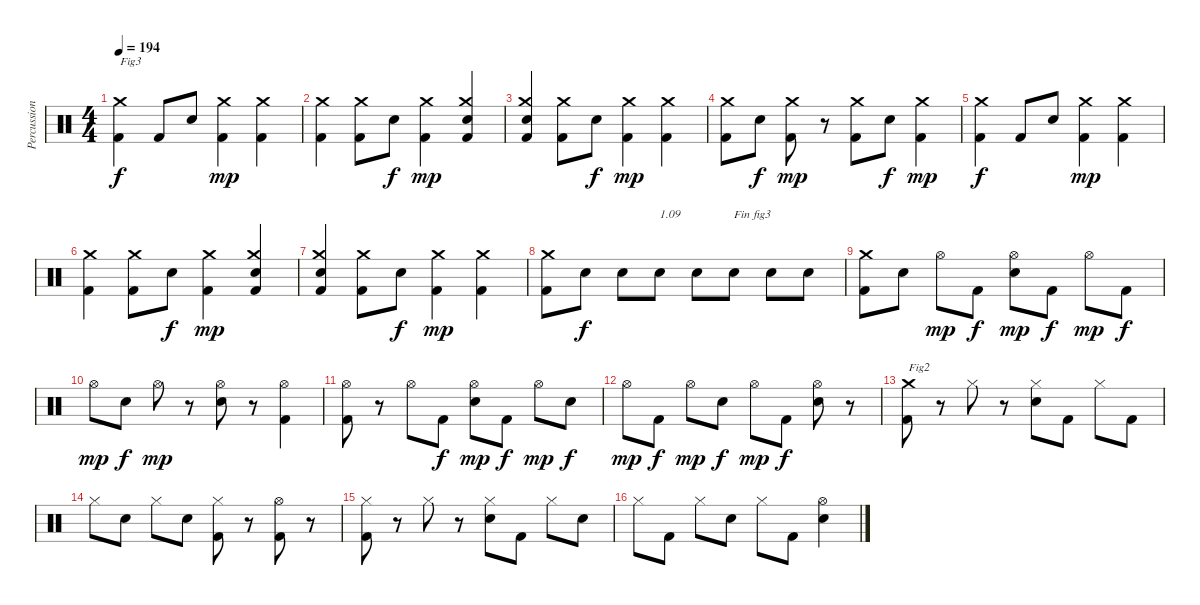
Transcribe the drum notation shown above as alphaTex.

\track ("Percussions" "Percussion") {instrument percussion}
\staff {score}
\articulation defaults
\ts (4 4)
\tempo 194
\clef neutral
\ks c
("Kick (hit) 2" "Crash medium (hit)").4{txt "Fig3" dy f} "Kick (hit) 2".8 "Electric Snare (hit)".8 ("Kick (hit) 2" "Crash medium (hit)").4{dy mp} ("Kick (hit) 2" "Crash medium (hit)").4 |
("Kick (hit) 2" "Crash medium (hit)").4 ("Kick (hit) 2" "Crash medium (hit)").8 "Electric Snare (hit)".8{dy f} ("Kick (hit) 2" "Crash medium (hit)").4{dy mp} ("Kick (hit) 2" "Electric Snare (hit)" "Crash medium (hit)").4 |
("Kick (hit) 2" "Electric Snare (hit)" "Crash medium (hit)").4 ("Kick (hit) 2" "Crash medium (hit)").8 "Electric Snare (hit)".8{dy f} ("Kick (hit) 2" "Crash medium (hit)").4{dy mp} ("Kick (hit) 2" "Crash medium (hit)").4 |
("Kick (hit) 2" "Crash medium (hit)").8 "Electric Snare (hit)".8{dy f} ("Kick (hit) 2" "Crash medium (hit)").8{dy mp} r.8 ("Kick (hit) 2" "Crash medium (hit)").8 "Electric Snare (hit)".8{dy f} ("Kick (hit) 2" "Crash medium (hit)").4{dy mp} |
("Kick (hit) 2" "Crash medium (hit)").4{dy f} "Kick (hit) 2".8 "Electric Snare (hit)".8 ("Kick (hit) 2" "Crash medium (hit)").4{dy mp} ("Kick (hit) 2" "Crash medium (hit)").4 |
("Kick (hit) 2" "Crash medium (hit)").4 ("Kick (hit) 2" "Crash medium (hit)").8 "Electric Snare (hit)".8{dy f} ("Kick (hit) 2" "Crash medium (hit)").4{dy mp} ("Kick (hit) 2" "Electric Snare (hit)" "Crash medium (hit)").4 |
("Kick (hit) 2" "Electric Snare (hit)" "Crash medium (hit)").4 ("Kick (hit) 2" "Crash medium (hit)").8 "Electric Snare (hit)".8{dy f} ("Kick (hit) 2" "Crash medium (hit)").4{dy mp} ("Kick (hit) 2" "Crash medium (hit)").4 |
("Kick (hit) 2" "Crash medium (hit)").8 "Electric Snare (hit)".8{dy f} "Electric Snare (hit)".8 "Electric Snare (hit)".8{txt "1.09"} "Electric Snare (hit)".8 "Electric Snare (hit)".8{txt "Fin fig3"} "Electric Snare (hit)".8 "Electric Snare (hit)".8 |
("Kick (hit) 2" "Crash medium (hit)").8 "Electric Snare (hit)".8 "Hi-Hat (open)".8{dy mp} "Kick (hit) 2".8{dy f} ("Electric Snare (hit)" "Hi-Hat (open)").8{dy mp} "Kick (hit) 2".8{dy f} "Hi-Hat (open)".8{dy mp} "Kick (hit) 2".8{dy f} |
"Hi-Hat (open)".8{dy mp} "Electric Snare (hit)".8{dy f} "Hi-Hat (open)".8{dy mp} r.8 ("Electric Snare (hit)" "Hi-Hat (open)").8 r.8 ("Kick (hit) 2" "Hi-Hat (open)").4 |
("Kick (hit) 2" "Hi-Hat (open)").8 r.8 "Hi-Hat (open)".8 "Kick (hit) 2".8{dy f} ("Electric Snare (hit)" "Hi-Hat (open)").8{dy mp} "Kick (hit) 2".8{dy f} "Hi-Hat (open)".8{dy mp} "Electric Snare (hit)".8{dy f} |
"Hi-Hat (open)".8{dy mp} "Kick (hit) 2".8{dy f} "Hi-Hat (open)".8{dy mp} "Electric Snare (hit)".8{dy f} "Hi-Hat (open)".8{dy mp} "Kick (hit) 2".8{dy f} ("Electric Snare (hit)" "Hi-Hat (open)").8 r.8 |
("Kick (hit) 2" "Crash medium (hit)").8{txt "Fig2"} r.8 "Hi-Hat (closed)".8 r.8 ("Electric Snare (hit)" "Hi-Hat (closed)").8 "Kick (hit) 2".8 "Hi-Hat (closed)".8 "Kick (hit) 2".8 |
"Hi-Hat (closed)".8 "Electric Snare (hit)".8 "Hi-Hat (closed)".8 "Electric Snare (hit)".8 ("Kick (hit) 2" "Hi-Hat (closed)").8 r.8 ("Kick (hit) 2" "Hi-Hat (open)").8 r.8 |
("Kick (hit) 2" "Hi-Hat (closed)").8 r.8 "Hi-Hat (closed)".8 r.8 ("Electric Snare (hit)" "Hi-Hat (closed)").8 "Kick (hit) 2".8 "Hi-Hat (closed)".8 "Electric Snare (hit)".8 |
"Hi-Hat (closed)".8 "Kick (hit) 2".8 "Hi-Hat (closed)".8 "Electric Snare (hit)".8 "Hi-Hat (closed)".8 "Kick (hit) 2".8 ("Electric Snare (hit)" "Hi-Hat (open)").4
